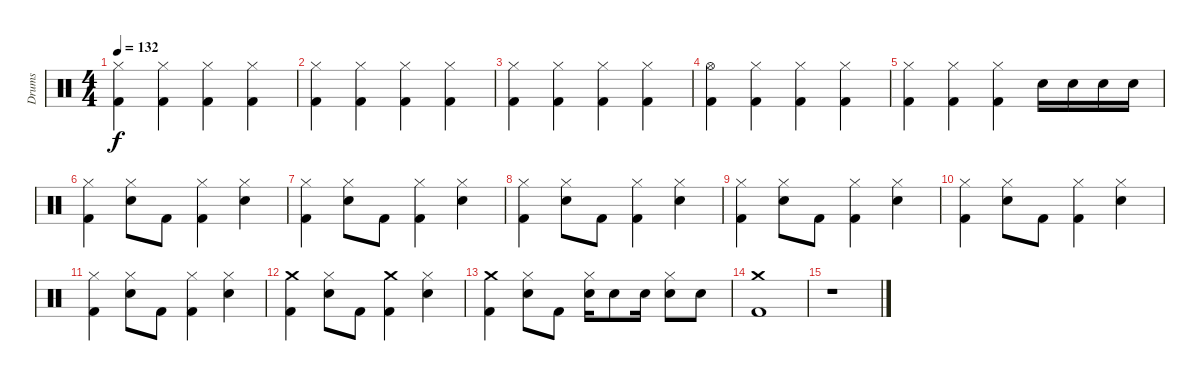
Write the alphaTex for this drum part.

\track ("Drums" "Drums") {instrument percussion}
\staff {score}
\articulation defaults
\ts (4 4)
\tempo 132
\clef neutral
\ks c
("Kick (hit) 2" "Hi-Hat (closed)").4{dy f} ("Kick (hit) 2" "Hi-Hat (closed)").4 ("Kick (hit) 2" "Hi-Hat (closed)").4 ("Kick (hit) 2" "Hi-Hat (closed)").4 |
("Hi-Hat (closed)" "Kick (hit) 2").4 ("Hi-Hat (closed)" "Kick (hit) 2").4 ("Hi-Hat (closed)" "Kick (hit) 2").4 ("Hi-Hat (closed)" "Kick (hit) 2").4 |
("Kick (hit) 2" "Hi-Hat (closed)").4 ("Kick (hit) 2" "Hi-Hat (closed)").4 ("Kick (hit) 2" "Hi-Hat (closed)").4 ("Kick (hit) 2" "Hi-Hat (closed)").4 |
("Kick (hit) 2" "Hi-Hat (open)").4 ("Kick (hit) 2" "Hi-Hat (closed)").4 ("Kick (hit) 2" "Hi-Hat (closed)").4 ("Kick (hit) 2" "Hi-Hat (closed)").4 |
("Hi-Hat (closed)" "Kick (hit) 2").4 ("Hi-Hat (closed)" "Kick (hit) 2").4 ("Hi-Hat (closed)" "Kick (hit) 2").4 "Snare (hit) 2".16 "Snare (hit) 2".16 "Snare (hit) 2".16 "Snare (hit) 2".16 |
("Hi-Hat (closed)" "Kick (hit) 2").4 ("Hi-Hat (closed)" "Snare (hit) 2").8 "Kick (hit) 2".8 ("Hi-Hat (closed)" "Kick (hit) 2").4 ("Hi-Hat (closed)" "Snare (hit) 2").4 |
("Hi-Hat (closed)" "Kick (hit) 2").4 ("Hi-Hat (closed)" "Snare (hit) 2").8 "Kick (hit) 2".8 ("Hi-Hat (closed)" "Kick (hit) 2").4 ("Hi-Hat (closed)" "Snare (hit) 2").4 |
("Hi-Hat (closed)" "Kick (hit) 2").4 ("Hi-Hat (closed)" "Snare (hit) 2").8 "Kick (hit) 2".8 ("Hi-Hat (closed)" "Kick (hit) 2").4 ("Hi-Hat (closed)" "Snare (hit) 2").4 |
("Hi-Hat (closed)" "Kick (hit) 2").4 ("Hi-Hat (closed)" "Snare (hit) 2").8 "Kick (hit) 2".8 ("Hi-Hat (closed)" "Kick (hit) 2").4 ("Hi-Hat (closed)" "Snare (hit) 2").4 |
("Hi-Hat (closed)" "Kick (hit) 2").4 ("Hi-Hat (closed)" "Snare (hit) 2").8 "Kick (hit) 2".8 ("Hi-Hat (closed)" "Kick (hit) 2").4 ("Hi-Hat (closed)" "Snare (hit) 2").4 |
("Hi-Hat (closed)" "Kick (hit) 2").4 ("Hi-Hat (closed)" "Snare (hit) 2").8 "Kick (hit) 2".8 ("Hi-Hat (closed)" "Kick (hit) 2").4 ("Hi-Hat (closed)" "Snare (hit) 2").4 |
("Crash medium (hit)" "Kick (hit) 2").4 ("Hi-Hat (closed)" "Snare (hit) 2").8 "Kick (hit) 2".8 ("Crash medium (hit)" "Kick (hit) 2").4 ("Hi-Hat (closed)" "Snare (hit) 2").4 |
("Crash medium (hit)" "Kick (hit) 2").4 ("Snare (hit) 2" "Hi-Hat (closed)").8 "Kick (hit) 2".8 ("Snare (hit) 2" "Hi-Hat (closed)").16 "Snare (hit) 2".8 "Snare (hit) 2".16 ("Snare (hit) 2" "Hi-Hat (closed)").8 "Snare (hit) 2".8 |
("Kick (hit) 2" "Crash medium (hit)").1 |
r.1
